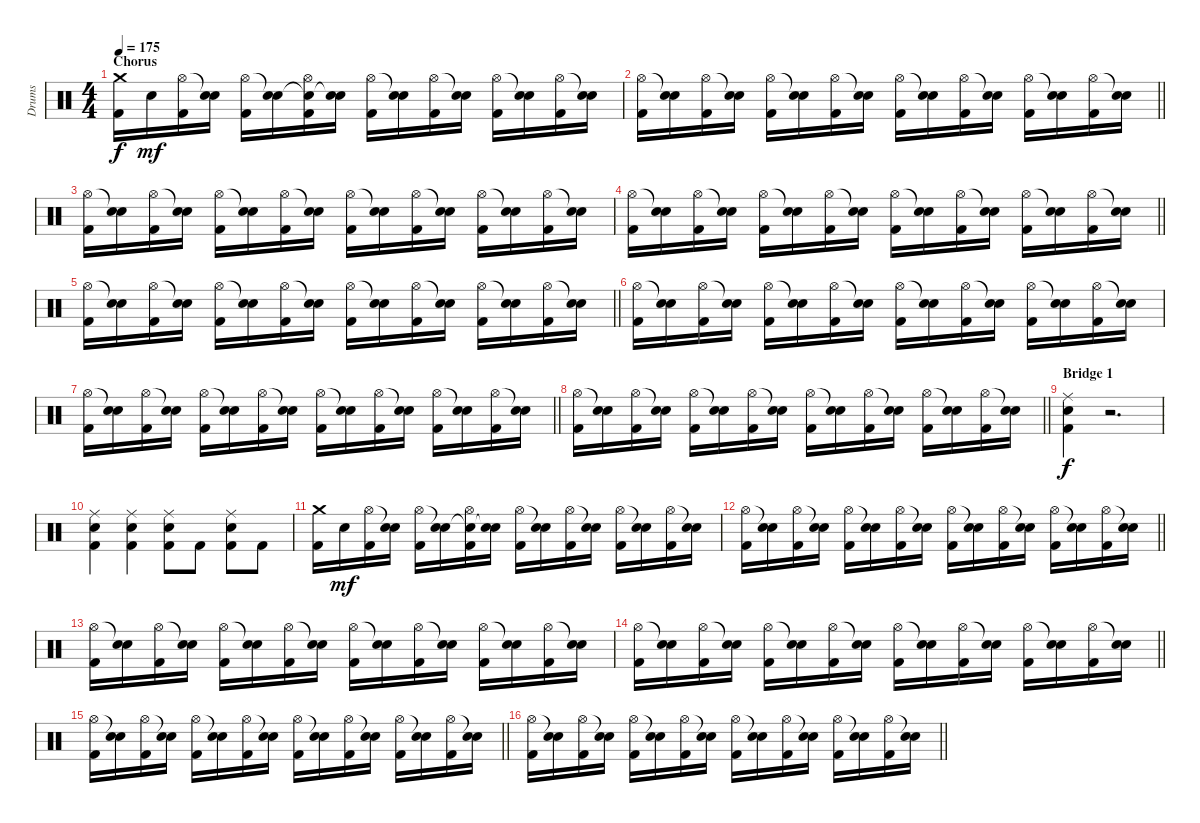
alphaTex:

\track ("Drums" "Drums") {instrument percussion}
\staff {score}
\articulation defaults
\ts (4 4)
\section ("" "Chorus")
\tempo 175
\clef neutral
\ks c
("Crash medium (hit)" "Kick (hit) 2").16{dy f} "Electric Snare (hit)".16{dy mf} ("Hi-Hat (open)" "Kick (hit) 2").16 ("Snare (hit)"{t} "Electric Snare (hit)").16 ("Hi-Hat (open)" "Kick (hit) 2").16 ("Snare (hit)"{t} "Electric Snare (hit)").16 ("Snare (hit)"{t} "Hi-Hat (open)" "Kick (hit) 2").16 ("Snare (hit)"{t} "Electric Snare (hit)").16 ("Hi-Hat (open)" "Kick (hit) 2").16 ("Snare (hit)"{t} "Electric Snare (hit)").16 ("Hi-Hat (open)" "Kick (hit) 2").16 ("Snare (hit)"{t} "Electric Snare (hit)").16 ("Hi-Hat (open)" "Kick (hit) 2").16 ("Snare (hit)"{t} "Electric Snare (hit)").16 ("Hi-Hat (open)" "Kick (hit) 2").16 ("Snare (hit)"{t} "Electric Snare (hit)").16 |
\barLineRight lightlight
("Hi-Hat (open)" "Kick (hit) 2").16 ("Snare (hit)"{t} "Electric Snare (hit)").16 ("Hi-Hat (open)" "Kick (hit) 2").16 ("Snare (hit)"{t} "Electric Snare (hit)").16 ("Hi-Hat (open)" "Kick (hit) 2").16 ("Snare (hit)"{t} "Electric Snare (hit)").16 ("Hi-Hat (open)" "Kick (hit) 2").16 ("Snare (hit)"{t} "Electric Snare (hit)").16 ("Hi-Hat (open)" "Kick (hit) 2").16 ("Snare (hit)"{t} "Electric Snare (hit)").16 ("Hi-Hat (open)" "Kick (hit) 2").16 ("Snare (hit)"{t} "Electric Snare (hit)").16 ("Hi-Hat (open)" "Kick (hit) 2").16 ("Snare (hit)"{t} "Electric Snare (hit)").16 ("Hi-Hat (open)" "Kick (hit) 2").16 ("Snare (hit)"{t} "Electric Snare (hit)").16 |
("Hi-Hat (open)" "Kick (hit) 2").16 ("Snare (hit)"{t} "Electric Snare (hit)").16 ("Hi-Hat (open)" "Kick (hit) 2").16 ("Snare (hit)"{t} "Electric Snare (hit)").16 ("Hi-Hat (open)" "Kick (hit) 2").16 ("Snare (hit)"{t} "Electric Snare (hit)").16 ("Hi-Hat (open)" "Kick (hit) 2").16 ("Snare (hit)"{t} "Electric Snare (hit)").16 ("Hi-Hat (open)" "Kick (hit) 2").16 ("Snare (hit)"{t} "Electric Snare (hit)").16 ("Hi-Hat (open)" "Kick (hit) 2").16 ("Snare (hit)"{t} "Electric Snare (hit)").16 ("Hi-Hat (open)" "Kick (hit) 2").16 ("Snare (hit)"{t} "Electric Snare (hit)").16 ("Hi-Hat (open)" "Kick (hit) 2").16 ("Snare (hit)"{t} "Electric Snare (hit)").16 |
\barLineRight lightlight
("Hi-Hat (open)" "Kick (hit) 2").16 ("Snare (hit)"{t} "Electric Snare (hit)").16 ("Hi-Hat (open)" "Kick (hit) 2").16 ("Snare (hit)"{t} "Electric Snare (hit)").16 ("Hi-Hat (open)" "Kick (hit) 2").16 ("Snare (hit)"{t} "Electric Snare (hit)").16 ("Hi-Hat (open)" "Kick (hit) 2").16 ("Snare (hit)"{t} "Electric Snare (hit)").16 ("Hi-Hat (open)" "Kick (hit) 2").16 ("Snare (hit)"{t} "Electric Snare (hit)").16 ("Hi-Hat (open)" "Kick (hit) 2").16 ("Snare (hit)"{t} "Electric Snare (hit)").16 ("Hi-Hat (open)" "Kick (hit) 2").16 ("Snare (hit)"{t} "Electric Snare (hit)").16 ("Hi-Hat (open)" "Kick (hit) 2").16 ("Snare (hit)"{t} "Electric Snare (hit)").16 |
\barLineRight lightlight
("Hi-Hat (open)" "Kick (hit) 2").16 ("Snare (hit)"{t} "Electric Snare (hit)").16 ("Hi-Hat (open)" "Kick (hit) 2").16 ("Snare (hit)"{t} "Electric Snare (hit)").16 ("Hi-Hat (open)" "Kick (hit) 2").16 ("Snare (hit)"{t} "Electric Snare (hit)").16 ("Hi-Hat (open)" "Kick (hit) 2").16 ("Snare (hit)"{t} "Electric Snare (hit)").16 ("Hi-Hat (open)" "Kick (hit) 2").16 ("Snare (hit)"{t} "Electric Snare (hit)").16 ("Hi-Hat (open)" "Kick (hit) 2").16 ("Snare (hit)"{t} "Electric Snare (hit)").16 ("Hi-Hat (open)" "Kick (hit) 2").16 ("Snare (hit)"{t} "Electric Snare (hit)").16 ("Hi-Hat (open)" "Kick (hit) 2").16 ("Snare (hit)"{t} "Electric Snare (hit)").16 |
("Hi-Hat (open)" "Kick (hit) 2").16 ("Snare (hit)"{t} "Electric Snare (hit)").16 ("Hi-Hat (open)" "Kick (hit) 2").16 ("Snare (hit)"{t} "Electric Snare (hit)").16 ("Hi-Hat (open)" "Kick (hit) 2").16 ("Snare (hit)"{t} "Electric Snare (hit)").16 ("Hi-Hat (open)" "Kick (hit) 2").16 ("Snare (hit)"{t} "Electric Snare (hit)").16 ("Hi-Hat (open)" "Kick (hit) 2").16 ("Snare (hit)"{t} "Electric Snare (hit)").16 ("Hi-Hat (open)" "Kick (hit) 2").16 ("Snare (hit)"{t} "Electric Snare (hit)").16 ("Hi-Hat (open)" "Kick (hit) 2").16 ("Snare (hit)"{t} "Electric Snare (hit)").16 ("Hi-Hat (open)" "Kick (hit) 2").16 ("Snare (hit)"{t} "Electric Snare (hit)").16 |
\barLineRight lightlight
("Hi-Hat (open)" "Kick (hit) 2").16 ("Snare (hit)"{t} "Electric Snare (hit)").16 ("Hi-Hat (open)" "Kick (hit) 2").16 ("Snare (hit)"{t} "Electric Snare (hit)").16 ("Hi-Hat (open)" "Kick (hit) 2").16 ("Snare (hit)"{t} "Electric Snare (hit)").16 ("Hi-Hat (open)" "Kick (hit) 2").16 ("Snare (hit)"{t} "Electric Snare (hit)").16 ("Hi-Hat (open)" "Kick (hit) 2").16 ("Snare (hit)"{t} "Electric Snare (hit)").16 ("Hi-Hat (open)" "Kick (hit) 2").16 ("Snare (hit)"{t} "Electric Snare (hit)").16 ("Hi-Hat (open)" "Kick (hit) 2").16 ("Snare (hit)"{t} "Electric Snare (hit)").16 ("Hi-Hat (open)" "Kick (hit) 2").16 ("Snare (hit)"{t} "Electric Snare (hit)").16 |
\barLineRight lightlight
("Hi-Hat (open)" "Kick (hit) 2").16 ("Snare (hit)"{t} "Electric Snare (hit)").16 ("Hi-Hat (open)" "Kick (hit) 2").16 ("Snare (hit)"{t} "Electric Snare (hit)").16 ("Hi-Hat (open)" "Kick (hit) 2").16 ("Snare (hit)"{t} "Electric Snare (hit)").16 ("Hi-Hat (open)" "Kick (hit) 2").16 ("Snare (hit)"{t} "Electric Snare (hit)").16 ("Hi-Hat (open)" "Kick (hit) 2").16 ("Snare (hit)"{t} "Electric Snare (hit)").16 ("Hi-Hat (open)" "Kick (hit) 2").16 ("Snare (hit)"{t} "Electric Snare (hit)").16 ("Hi-Hat (open)" "Kick (hit) 2").16 ("Snare (hit)"{t} "Electric Snare (hit)").16 ("Hi-Hat (open)" "Kick (hit) 2").16 ("Snare (hit)"{t} "Electric Snare (hit)").16 |
\section ("" "Bridge 1")
("Ride (middle)" "Snare (hit) 2" "Kick (hit) 2").4{dy f} r.2{d} |
("Ride (middle)" "Snare (hit) 2" "Kick (hit) 2").4 ("Ride (middle)" "Snare (hit) 2" "Kick (hit) 2").4 ("Ride (middle)" "Snare (hit) 2" "Kick (hit) 2").8 "Kick (hit) 2".8 ("Ride (middle)" "Snare (hit) 2" "Kick (hit) 2").8 "Kick (hit) 2".8 |
("Crash medium (hit)" "Kick (hit) 2").16 "Electric Snare (hit)".16{dy mf} ("Hi-Hat (open)" "Kick (hit) 2").16 ("Snare (hit)"{t} "Electric Snare (hit)").16 ("Hi-Hat (open)" "Kick (hit) 2").16 ("Snare (hit)"{t} "Electric Snare (hit)").16 ("Snare (hit)"{t} "Hi-Hat (open)" "Kick (hit) 2").16 ("Snare (hit)"{t} "Electric Snare (hit)").16 ("Hi-Hat (open)" "Kick (hit) 2").16 ("Snare (hit)"{t} "Electric Snare (hit)").16 ("Hi-Hat (open)" "Kick (hit) 2").16 ("Snare (hit)"{t} "Electric Snare (hit)").16 ("Hi-Hat (open)" "Kick (hit) 2").16 ("Snare (hit)"{t} "Electric Snare (hit)").16 ("Hi-Hat (open)" "Kick (hit) 2").16 ("Snare (hit)"{t} "Electric Snare (hit)").16 |
\barLineRight lightlight
("Hi-Hat (open)" "Kick (hit) 2").16 ("Snare (hit)"{t} "Electric Snare (hit)").16 ("Hi-Hat (open)" "Kick (hit) 2").16 ("Snare (hit)"{t} "Electric Snare (hit)").16 ("Hi-Hat (open)" "Kick (hit) 2").16 ("Snare (hit)"{t} "Electric Snare (hit)").16 ("Hi-Hat (open)" "Kick (hit) 2").16 ("Snare (hit)"{t} "Electric Snare (hit)").16 ("Hi-Hat (open)" "Kick (hit) 2").16 ("Snare (hit)"{t} "Electric Snare (hit)").16 ("Hi-Hat (open)" "Kick (hit) 2").16 ("Snare (hit)"{t} "Electric Snare (hit)").16 ("Hi-Hat (open)" "Kick (hit) 2").16 ("Snare (hit)"{t} "Electric Snare (hit)").16 ("Hi-Hat (open)" "Kick (hit) 2").16 ("Snare (hit)"{t} "Electric Snare (hit)").16 |
("Hi-Hat (open)" "Kick (hit) 2").16 ("Snare (hit)"{t} "Electric Snare (hit)").16 ("Hi-Hat (open)" "Kick (hit) 2").16 ("Snare (hit)"{t} "Electric Snare (hit)").16 ("Hi-Hat (open)" "Kick (hit) 2").16 ("Snare (hit)"{t} "Electric Snare (hit)").16 ("Hi-Hat (open)" "Kick (hit) 2").16 ("Snare (hit)"{t} "Electric Snare (hit)").16 ("Hi-Hat (open)" "Kick (hit) 2").16 ("Snare (hit)"{t} "Electric Snare (hit)").16 ("Hi-Hat (open)" "Kick (hit) 2").16 ("Snare (hit)"{t} "Electric Snare (hit)").16 ("Hi-Hat (open)" "Kick (hit) 2").16 ("Snare (hit)"{t} "Electric Snare (hit)").16 ("Hi-Hat (open)" "Kick (hit) 2").16 ("Snare (hit)"{t} "Electric Snare (hit)").16 |
\barLineRight lightlight
("Hi-Hat (open)" "Kick (hit) 2").16 ("Snare (hit)"{t} "Electric Snare (hit)").16 ("Hi-Hat (open)" "Kick (hit) 2").16 ("Snare (hit)"{t} "Electric Snare (hit)").16 ("Hi-Hat (open)" "Kick (hit) 2").16 ("Snare (hit)"{t} "Electric Snare (hit)").16 ("Hi-Hat (open)" "Kick (hit) 2").16 ("Snare (hit)"{t} "Electric Snare (hit)").16 ("Hi-Hat (open)" "Kick (hit) 2").16 ("Snare (hit)"{t} "Electric Snare (hit)").16 ("Hi-Hat (open)" "Kick (hit) 2").16 ("Snare (hit)"{t} "Electric Snare (hit)").16 ("Hi-Hat (open)" "Kick (hit) 2").16 ("Snare (hit)"{t} "Electric Snare (hit)").16 ("Hi-Hat (open)" "Kick (hit) 2").16 ("Snare (hit)"{t} "Electric Snare (hit)").16 |
\barLineRight lightlight
("Hi-Hat (open)" "Kick (hit) 2").16 ("Snare (hit)"{t} "Electric Snare (hit)").16 ("Hi-Hat (open)" "Kick (hit) 2").16 ("Snare (hit)"{t} "Electric Snare (hit)").16 ("Hi-Hat (open)" "Kick (hit) 2").16 ("Snare (hit)"{t} "Electric Snare (hit)").16 ("Hi-Hat (open)" "Kick (hit) 2").16 ("Snare (hit)"{t} "Electric Snare (hit)").16 ("Hi-Hat (open)" "Kick (hit) 2").16 ("Snare (hit)"{t} "Electric Snare (hit)").16 ("Hi-Hat (open)" "Kick (hit) 2").16 ("Snare (hit)"{t} "Electric Snare (hit)").16 ("Hi-Hat (open)" "Kick (hit) 2").16 ("Snare (hit)"{t} "Electric Snare (hit)").16 ("Hi-Hat (open)" "Kick (hit) 2").16 ("Snare (hit)"{t} "Electric Snare (hit)").16 |
\barLineRight lightlight
("Hi-Hat (open)" "Kick (hit) 2").16 ("Snare (hit)"{t} "Electric Snare (hit)").16 ("Hi-Hat (open)" "Kick (hit) 2").16 ("Snare (hit)"{t} "Electric Snare (hit)").16 ("Hi-Hat (open)" "Kick (hit) 2").16 ("Snare (hit)"{t} "Electric Snare (hit)").16 ("Hi-Hat (open)" "Kick (hit) 2").16 ("Snare (hit)"{t} "Electric Snare (hit)").16 ("Hi-Hat (open)" "Kick (hit) 2").16 ("Snare (hit)"{t} "Electric Snare (hit)").16 ("Hi-Hat (open)" "Kick (hit) 2").16 ("Snare (hit)"{t} "Electric Snare (hit)").16 ("Hi-Hat (open)" "Kick (hit) 2").16 ("Snare (hit)"{t} "Electric Snare (hit)").16 ("Hi-Hat (open)" "Kick (hit) 2").16 ("Snare (hit)"{t} "Electric Snare (hit)").16
